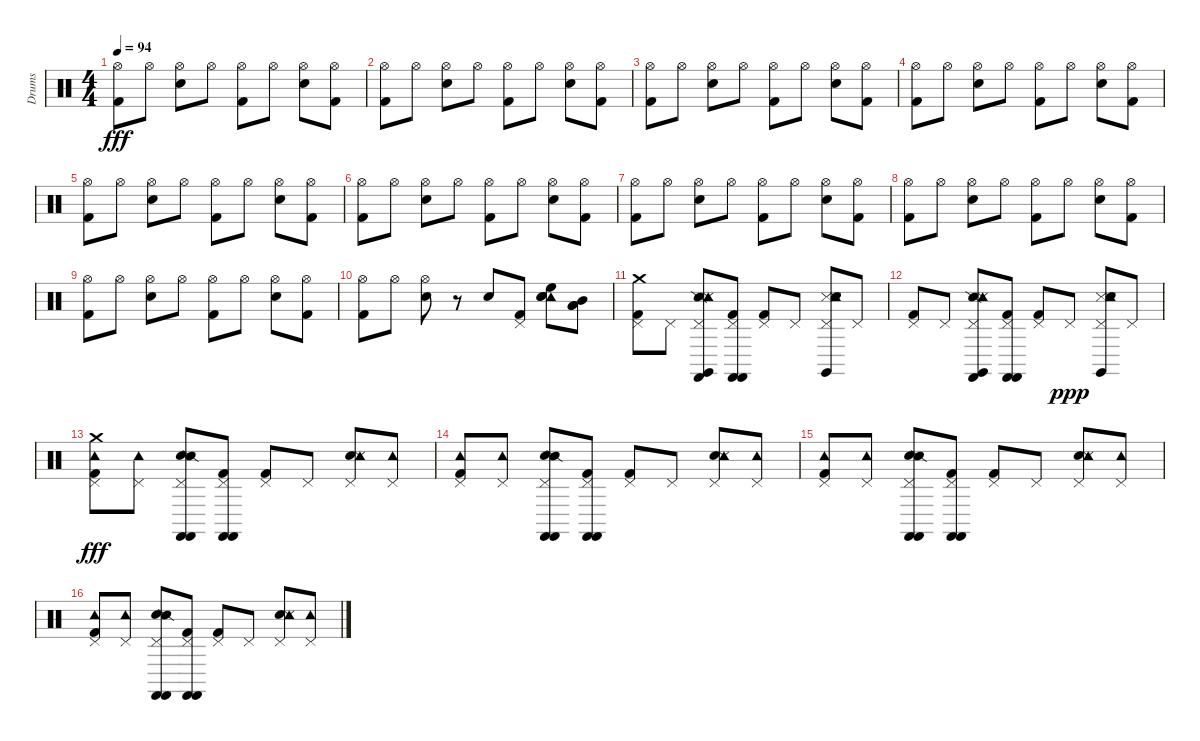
\track ("Drums" "Drums") {instrument percussion}
\staff {score}
\articulation defaults
\ts (4 4)
\tempo 94
\clef neutral
\ks c
("Hi-Hat (open)" "Kick (hit) 2").8{dy fff} "Hi-Hat (open)".8 ("Hi-Hat (open)" "Snare (hit) 2").8 "Hi-Hat (open)".8 ("Hi-Hat (open)" "Kick (hit) 2").8 "Hi-Hat (open)".8 ("Hi-Hat (open)" "Snare (hit) 2").8 ("Hi-Hat (open)" "Kick (hit) 2").8 |
("Hi-Hat (open)" "Kick (hit) 2").8 "Hi-Hat (open)".8 ("Hi-Hat (open)" "Snare (hit) 2").8 "Hi-Hat (open)".8 ("Hi-Hat (open)" "Kick (hit) 2").8 "Hi-Hat (open)".8 ("Hi-Hat (open)" "Snare (hit) 2").8 ("Hi-Hat (open)" "Kick (hit) 2").8 |
("Hi-Hat (open)" "Kick (hit) 2").8 "Hi-Hat (open)".8 ("Hi-Hat (open)" "Snare (hit) 2").8 "Hi-Hat (open)".8 ("Hi-Hat (open)" "Kick (hit) 2").8 "Hi-Hat (open)".8 ("Hi-Hat (open)" "Snare (hit) 2").8 ("Hi-Hat (open)" "Kick (hit) 2").8 |
("Hi-Hat (open)" "Kick (hit) 2").8 "Hi-Hat (open)".8 ("Hi-Hat (open)" "Snare (hit) 2").8 "Hi-Hat (open)".8 ("Hi-Hat (open)" "Kick (hit) 2").8 "Hi-Hat (open)".8 ("Hi-Hat (open)" "Snare (hit) 2").8 ("Hi-Hat (open)" "Kick (hit) 2").8 |
("Hi-Hat (open)" "Kick (hit) 2").8 "Hi-Hat (open)".8 ("Hi-Hat (open)" "Snare (hit) 2").8 "Hi-Hat (open)".8 ("Hi-Hat (open)" "Kick (hit) 2").8 "Hi-Hat (open)".8 ("Hi-Hat (open)" "Snare (hit) 2").8 ("Hi-Hat (open)" "Kick (hit) 2").8 |
("Hi-Hat (open)" "Kick (hit) 2").8 "Hi-Hat (open)".8 ("Hi-Hat (open)" "Snare (hit) 2").8 "Hi-Hat (open)".8 ("Hi-Hat (open)" "Kick (hit) 2").8 "Hi-Hat (open)".8 ("Hi-Hat (open)" "Snare (hit) 2").8 ("Hi-Hat (open)" "Kick (hit) 2").8 |
("Hi-Hat (open)" "Kick (hit) 2").8 "Hi-Hat (open)".8 ("Hi-Hat (open)" "Snare (hit) 2").8 "Hi-Hat (open)".8 ("Hi-Hat (open)" "Kick (hit) 2").8 "Hi-Hat (open)".8 ("Hi-Hat (open)" "Snare (hit) 2").8 ("Hi-Hat (open)" "Kick (hit) 2").8 |
("Hi-Hat (open)" "Kick (hit) 2").8 "Hi-Hat (open)".8 ("Hi-Hat (open)" "Snare (hit) 2").8 "Hi-Hat (open)".8 ("Hi-Hat (open)" "Kick (hit) 2").8 "Hi-Hat (open)".8 ("Hi-Hat (open)" "Snare (hit) 2").8 ("Hi-Hat (open)" "Kick (hit) 2").8 |
("Hi-Hat (open)" "Kick (hit) 2").8 "Hi-Hat (open)".8 ("Hi-Hat (open)" "Snare (hit) 2").8 "Hi-Hat (open)".8 ("Hi-Hat (open)" "Kick (hit) 2").8 "Hi-Hat (open)".8 ("Hi-Hat (open)" "Snare (hit) 2").8 ("Hi-Hat (open)" "Kick (hit) 2").8 |
("Hi-Hat (open)" "Kick (hit) 2").8 "Hi-Hat (open)".8 ("Hi-Hat (open)" "Snare (hit) 2").8 r.8 "Electric Snare (hit)".8 ("Pedal Hi-Hat (hit)" "Kick (hit) 2").8 ("Tambourine (hit)" "Electric Snare (hit)" "High Floor Tom (hit)" "Electric Snare (hit)").8 ("Mid Tom (hit)" "Low Floor Tom (hit)" "Low Floor Tom (hit)").8 |
("Pedal Hi-Hat (hit)" "Kick (hit) 2" "Crash medium (hit)").8 "Pedal Hi-Hat (hit)".8 ("Pedal Hi-Hat (hit)" "Snare (side stick) 2" "Castanets (hit)" "Snare (side stick) 3" "Tambourine (hit)" "Claves (hit)").8 ("Pedal Hi-Hat (hit)" "Kick (hit) 2" "Castanets (hit)" "Castanets (hit)").8 ("Pedal Hi-Hat (hit)" "Kick (hit) 2").8 "Pedal Hi-Hat (hit)".8 ("Pedal Hi-Hat (hit)" "Metronome (hit)" "Tambourine (hit)" "Claves (hit)" "Snare (side stick) 3" "Electric Snare (hit)").8 "Pedal Hi-Hat (hit)".8 |
("Pedal Hi-Hat (hit)" "Kick (hit) 2").8 "Pedal Hi-Hat (hit)".8 ("Pedal Hi-Hat (hit)" "Snare (side stick) 2" "Castanets (hit)" "Snare (side stick) 3" "Tambourine (hit)" "Claves (hit)").8 ("Pedal Hi-Hat (hit)" "Kick (hit) 2" "Castanets (hit)" "Castanets (hit)").8 ("Pedal Hi-Hat (hit)" "Kick (hit) 2").8 "Pedal Hi-Hat (hit)".8{dy ppp} ("Pedal Hi-Hat (hit)" "Metronome (hit)" "Tambourine (hit)" "Claves (hit)" "Snare (side stick) 3" "Electric Snare (hit)").8 "Pedal Hi-Hat (hit)".8 |
("Pedal Hi-Hat (hit)" "Kick (hit) 2" "Crash medium (hit)" "Tambourine (hit)").8{dy fff} ("Pedal Hi-Hat (hit)" "Tambourine (hit)").8 ("Pedal Hi-Hat (hit)" "Electric Snare (hit)" "Snare (side stick) 2" "Castanets (hit)" "Castanets (hit)").8 ("Pedal Hi-Hat (hit)" "Kick (hit) 2" "Castanets (hit)" "Castanets (hit)").8 ("Pedal Hi-Hat (hit)" "Kick (hit) 2").8 "Pedal Hi-Hat (hit)".8 ("Pedal Hi-Hat (hit)" "Electric Snare (hit)" "Metronome (hit)" "Tambourine (hit)").8 ("Pedal Hi-Hat (hit)" "Tambourine (hit)").8 |
("Pedal Hi-Hat (hit)" "Kick (hit) 2" "Tambourine (hit)").8 ("Pedal Hi-Hat (hit)" "Tambourine (hit)").8 ("Pedal Hi-Hat (hit)" "Electric Snare (hit)" "Snare (side stick) 2" "Castanets (hit)" "Castanets (hit)").8 ("Pedal Hi-Hat (hit)" "Kick (hit) 2" "Castanets (hit)" "Castanets (hit)").8 ("Pedal Hi-Hat (hit)" "Kick (hit) 2").8 "Pedal Hi-Hat (hit)".8 ("Pedal Hi-Hat (hit)" "Electric Snare (hit)" "Metronome (hit)" "Tambourine (hit)").8 ("Pedal Hi-Hat (hit)" "Tambourine (hit)").8 |
("Pedal Hi-Hat (hit)" "Kick (hit) 2" "Tambourine (hit)").8 ("Pedal Hi-Hat (hit)" "Tambourine (hit)").8 ("Pedal Hi-Hat (hit)" "Electric Snare (hit)" "Snare (side stick) 2" "Castanets (hit)" "Castanets (hit)").8 ("Pedal Hi-Hat (hit)" "Kick (hit) 2" "Castanets (hit)" "Castanets (hit)").8 ("Pedal Hi-Hat (hit)" "Kick (hit) 2").8 "Pedal Hi-Hat (hit)".8 ("Pedal Hi-Hat (hit)" "Electric Snare (hit)" "Metronome (hit)" "Tambourine (hit)").8 ("Pedal Hi-Hat (hit)" "Tambourine (hit)").8 |
("Pedal Hi-Hat (hit)" "Kick (hit) 2" "Tambourine (hit)").8 ("Pedal Hi-Hat (hit)" "Tambourine (hit)").8 ("Pedal Hi-Hat (hit)" "Electric Snare (hit)" "Snare (side stick) 2" "Castanets (hit)" "Castanets (hit)").8 ("Pedal Hi-Hat (hit)" "Kick (hit) 2" "Castanets (hit)" "Castanets (hit)").8 ("Pedal Hi-Hat (hit)" "Kick (hit) 2").8 "Pedal Hi-Hat (hit)".8 ("Pedal Hi-Hat (hit)" "Electric Snare (hit)" "Metronome (hit)" "Tambourine (hit)").8 ("Pedal Hi-Hat (hit)" "Tambourine (hit)").8
